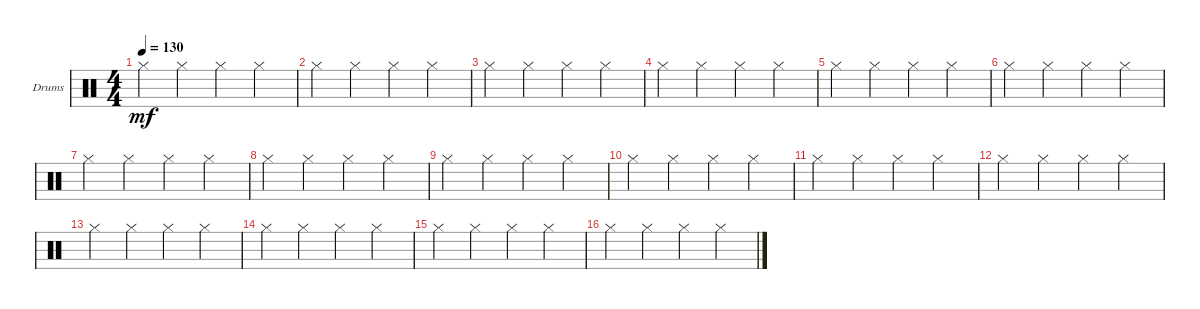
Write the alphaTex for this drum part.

\defaultSystemsLayout 4
\bracketExtendMode nobrackets
\firstSystemTrackNameOrientation horizontal
\otherSystemsTrackNameOrientation horizontal
\track ("Drumkit" "Drums") {instrument percussion}
\staff {score}
\articulation defaults
\ts (4 4)
\tempo 130
\clef neutral
\scale
0.333333
\ks c "Hi-Hat (closed)".4{dy mf} "Hi-Hat (closed)".4 "Hi-Hat (closed)".4 "Hi-Hat (closed)".4
|
\scale
0.333333 "Hi-Hat (closed)".4 "Hi-Hat (closed)".4 "Hi-Hat (closed)".4 "Hi-Hat (closed)".4 |
\scale
0.333333 "Hi-Hat (closed)".4 "Hi-Hat (closed)".4 "Hi-Hat (closed)".4 "Hi-Hat (closed)".4 |
\scale
0.333333 "Hi-Hat (closed)".4 "Hi-Hat (closed)".4 "Hi-Hat (closed)".4 "Hi-Hat (closed)".4 |
\scale
0.333333 "Hi-Hat (closed)".4 "Hi-Hat (closed)".4 "Hi-Hat (closed)".4 "Hi-Hat (closed)".4 |
"Hi-Hat (closed)".4 "Hi-Hat (closed)".4 "Hi-Hat (closed)".4 "Hi-Hat (closed)".4 |
"Hi-Hat (closed)".4 "Hi-Hat (closed)".4 "Hi-Hat (closed)".4 "Hi-Hat (closed)".4 |
"Hi-Hat (closed)".4 "Hi-Hat (closed)".4 "Hi-Hat (closed)".4 "Hi-Hat (closed)".4 |
"Hi-Hat (closed)".4 "Hi-Hat (closed)".4 "Hi-Hat (closed)".4 "Hi-Hat (closed)".4 |
"Hi-Hat (closed)".4 "Hi-Hat (closed)".4 "Hi-Hat (closed)".4 "Hi-Hat (closed)".4 |
"Hi-Hat (closed)".4 "Hi-Hat (closed)".4 "Hi-Hat (closed)".4 "Hi-Hat (closed)".4 |
"Hi-Hat (closed)".4 "Hi-Hat (closed)".4 "Hi-Hat (closed)".4 "Hi-Hat (closed)".4 |
"Hi-Hat (closed)".4 "Hi-Hat (closed)".4 "Hi-Hat (closed)".4 "Hi-Hat (closed)".4 |
"Hi-Hat (closed)".4 "Hi-Hat (closed)".4 "Hi-Hat (closed)".4 "Hi-Hat (closed)".4 |
"Hi-Hat (closed)".4 "Hi-Hat (closed)".4 "Hi-Hat (closed)".4 "Hi-Hat (closed)".4 |
"Hi-Hat (closed)".4 "Hi-Hat (closed)".4 "Hi-Hat (closed)".4 "Hi-Hat (closed)".4
